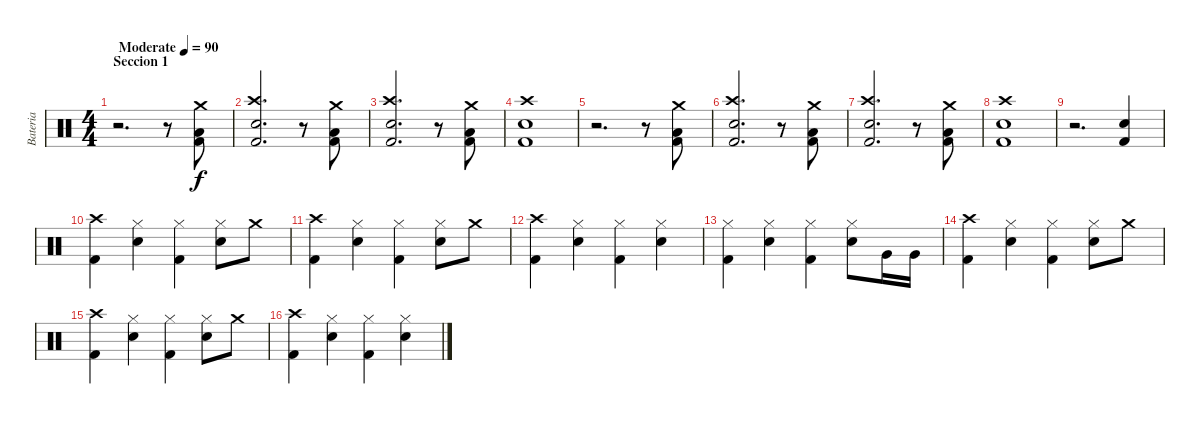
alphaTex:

\track ("Bateria" "Bateria") {instrument percussion}
\staff {score}
\articulation defaults
\ts (4 4)
\section ("" "Seccion 1")
\tempo (90 "Moderate")
\clef neutral
\ks c
r.2{d dy f} r.8 ("Crash medium (hit)" "Low Tom (hit)" "Kick (hit) 2").8 |
("Crash high (hit)" "Snare (hit) 2" "Kick (hit) 2").2{d} r.8 ("Crash medium (hit)" "Low Tom (hit)" "Kick (hit) 2").8 |
("Crash high (hit)" "Snare (hit) 2" "Kick (hit) 2").2{d} r.8 ("Crash medium (hit)" "Low Tom (hit)" "Kick (hit) 2").8 |
("Crash high (hit)" "Snare (hit) 2" "Kick (hit) 2").1 |
r.2{d} r.8 ("Crash medium (hit)" "Low Tom (hit)" "Kick (hit) 2").8 |
("Crash high (hit)" "Snare (hit) 2" "Kick (hit) 2").2{d} r.8 ("Crash medium (hit)" "Low Tom (hit)" "Kick (hit) 2").8 |
("Crash high (hit)" "Snare (hit) 2" "Kick (hit) 2").2{d} r.8 ("Crash medium (hit)" "Low Tom (hit)" "Kick (hit) 2").8 |
("Crash high (hit)" "Snare (hit) 2" "Kick (hit) 2").1 |
r.2{d} ("Snare (hit) 2" "Kick (hit) 2").4 |
("Crash high (hit)" "Kick (hit) 2").4 ("Hi-Hat (closed)" "Snare (hit) 2").4 ("Hi-Hat (closed)" "Kick (hit) 2").4 ("Hi-Hat (closed)" "Snare (hit) 2").8 "Crash medium (hit)".8 |
("Crash high (hit)" "Kick (hit) 2").4 ("Hi-Hat (closed)" "Snare (hit) 2").4 ("Hi-Hat (closed)" "Kick (hit) 2").4 ("Hi-Hat (closed)" "Snare (hit) 2").8 "Crash medium (hit)".8 |
("Crash high (hit)" "Kick (hit) 2").4 ("Hi-Hat (closed)" "Snare (hit) 2").4 ("Hi-Hat (closed)" "Kick (hit) 2").4 ("Hi-Hat (closed)" "Snare (hit) 2").4 |
("Hi-Hat (closed)" "Kick (hit) 2").4 ("Hi-Hat (closed)" "Snare (hit) 2").4 ("Hi-Hat (closed)" "Kick (hit) 2").4 ("Hi-Hat (closed)" "Snare (hit) 2").8 "Very Low Tom (hit)".16 "Very Low Tom (hit)".16 |
("Crash high (hit)" "Kick (hit) 2").4 ("Hi-Hat (closed)" "Snare (hit) 2").4 ("Hi-Hat (closed)" "Kick (hit) 2").4 ("Hi-Hat (closed)" "Snare (hit) 2").8 "Crash medium (hit)".8 |
("Crash high (hit)" "Kick (hit) 2").4 ("Hi-Hat (closed)" "Snare (hit) 2").4 ("Hi-Hat (closed)" "Kick (hit) 2").4 ("Hi-Hat (closed)" "Snare (hit) 2").8 "Crash medium (hit)".8 |
("Crash high (hit)" "Kick (hit) 2").4 ("Hi-Hat (closed)" "Snare (hit) 2").4 ("Hi-Hat (closed)" "Kick (hit) 2").4 ("Hi-Hat (closed)" "Snare (hit) 2").4
